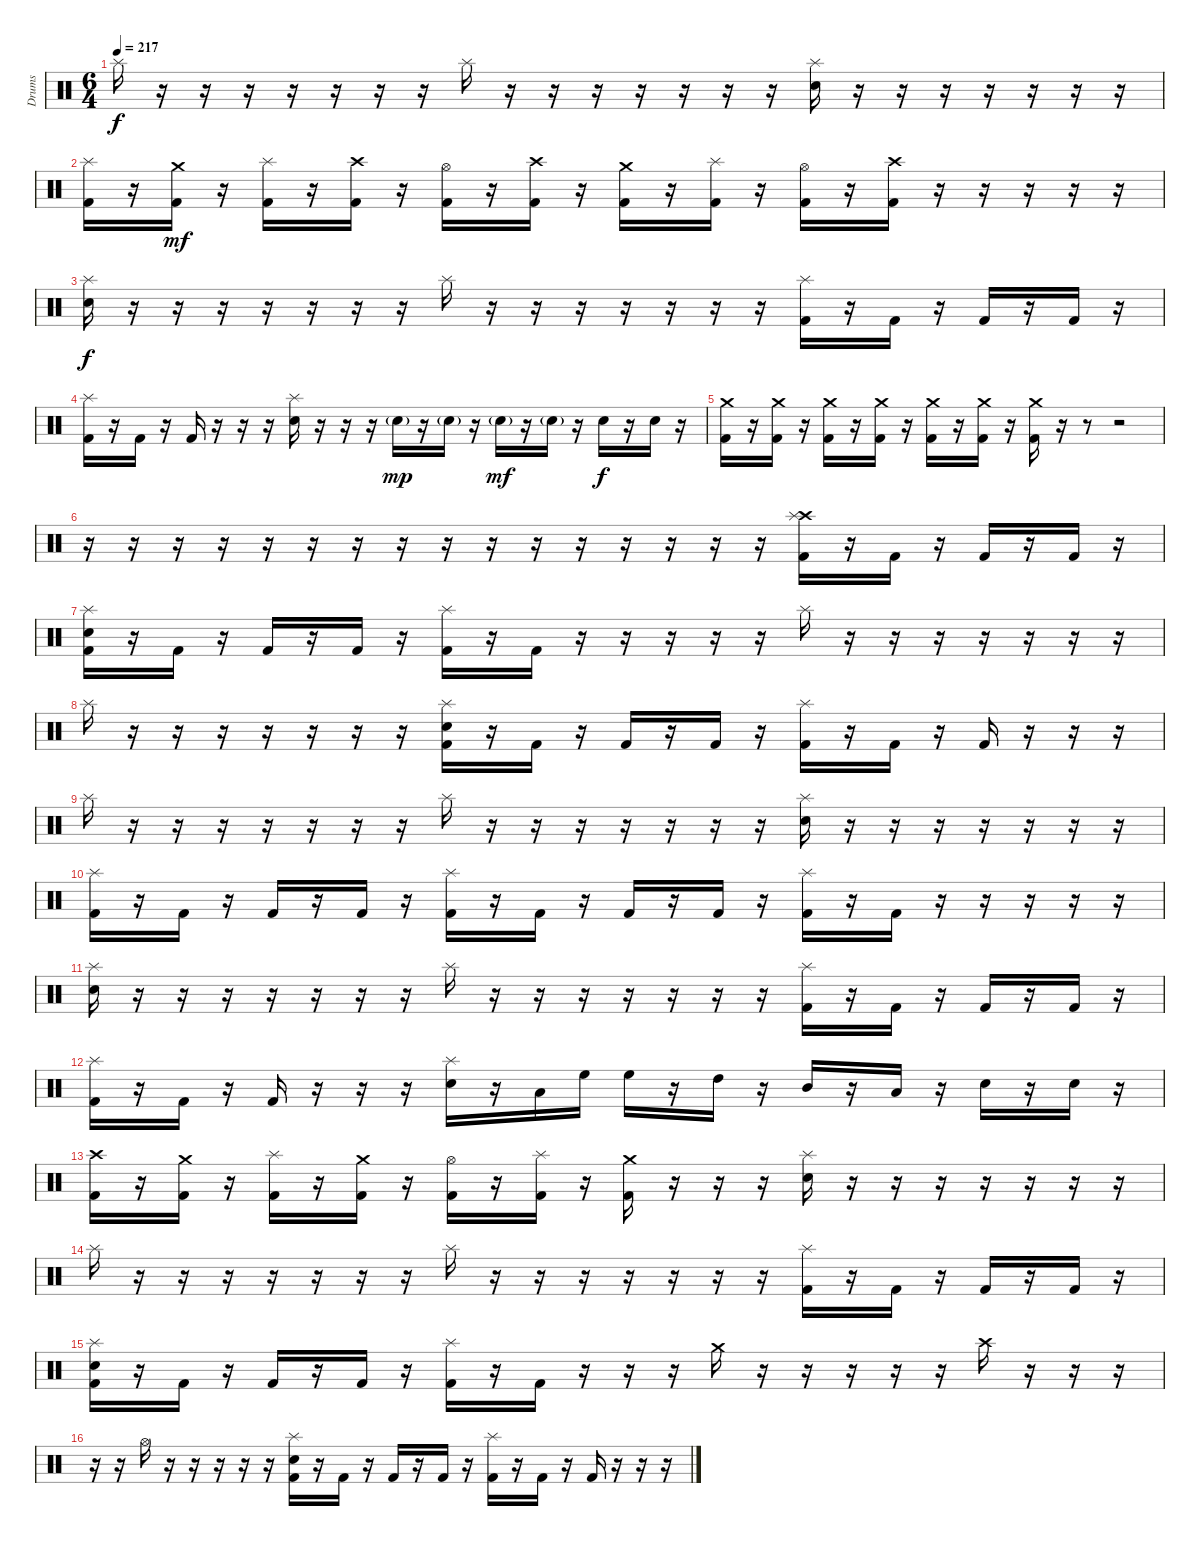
\track ("Drums" "Drums") {instrument percussion}
\staff {score}
\articulation defaults
\ts (6 4)
\tempo 217
\clef neutral
\ks c "Splash (hit)".16{dy f}
r.16 r.16 r.16 r.16 r.16 r.16 r.16 "Splash (hit)".16 r.16 r.16 r.16 r.16 r.16 r.16 r.16 ("Splash (hit)" "Electric Snare (hit)").16 r.16 r.16 r.16 r.16 r.16 r.16 r.16 |
("Splash (hit)" "Kick (hit) 2").16 r.16 ("Crash medium (hit)" "Kick (hit) 2").16{dy mf} r.16 ("Splash (hit)" "Kick (hit) 2").16 r.16 ("Crash high (hit)" "Kick (hit) 2").16 r.16 ("Hi-Hat (open)" "Kick (hit) 2").16 r.16 ("Crash high (hit)" "Kick (hit) 2").16 r.16 ("Crash medium (hit)" "Kick (hit) 2").16 r.16 ("Splash (hit)" "Kick (hit) 2").16 r.16 ("Hi-Hat (open)" "Kick (hit) 2").16 r.16 ("Crash high (hit)" "Kick (hit) 2").16 r.16 r.16 r.16 r.16 r.16 |
("Splash (hit)" "Electric Snare (hit)").16{dy f} r.16 r.16 r.16 r.16 r.16 r.16 r.16 "Splash (hit)".16 r.16 r.16 r.16 r.16 r.16 r.16 r.16 ("Splash (hit)" "Kick (hit) 2").16 r.16 "Kick (hit) 2".16 r.16 "Kick (hit) 2".16 r.16 "Kick (hit) 2".16 r.16 |
("Splash (hit)" "Kick (hit) 2").16 r.16 "Kick (hit) 2".16 r.16 "Kick (hit) 2".16 r.16 r.16 r.16 ("Splash (hit)" "Electric Snare (hit)").16 r.16 r.16 r.16 "Electric Snare (hit)"{g}.16{dy mp} r.16 "Electric Snare (hit)"{g}.16 r.16 "Electric Snare (hit)"{g}.16{dy mf} r.16 "Electric Snare (hit)"{g}.16 r.16 "Electric Snare (hit)".16{dy f} r.16 "Electric Snare (hit)".16 r.16 |
("Crash medium (hit)" "Kick (hit) 2").16 r.16 ("Crash medium (hit)" "Kick (hit) 2").16 r.16 ("Crash medium (hit)" "Kick (hit) 2").16 r.16 ("Crash medium (hit)" "Kick (hit) 2").16 r.16 ("Crash medium (hit)" "Kick (hit) 2").16 r.16 ("Crash medium (hit)" "Kick (hit) 2").16 r.16 ("Crash medium (hit)" "Kick (hit) 2").16 r.16 r.8 r.2 |
r.16 r.16 r.16 r.16 r.16 r.16 r.16 r.16 r.16 r.16 r.16 r.16 r.16 r.16 r.16 r.16 ("Crash high (hit)" "Splash (hit)" "Kick (hit) 2").16 r.16 "Kick (hit) 2".16 r.16 "Kick (hit) 2".16 r.16 "Kick (hit) 2".16 r.16 |
("Splash (hit)" "Electric Snare (hit)" "Kick (hit) 2").16 r.16 "Kick (hit) 2".16 r.16 "Kick (hit) 2".16 r.16 "Kick (hit) 2".16 r.16 ("Splash (hit)" "Kick (hit) 2").16 r.16 "Kick (hit) 2".16 r.16 r.16 r.16 r.16 r.16 "Splash (hit)".16 r.16 r.16 r.16 r.16 r.16 r.16 r.16 |
"Splash (hit)".16 r.16 r.16 r.16 r.16 r.16 r.16 r.16 ("Splash (hit)" "Electric Snare (hit)" "Kick (hit) 2").16 r.16 "Kick (hit) 2".16 r.16 "Kick (hit) 2".16 r.16 "Kick (hit) 2".16 r.16 ("Splash (hit)" "Kick (hit) 2").16 r.16 "Kick (hit) 2".16 r.16 "Kick (hit) 2".16 r.16 r.16 r.16 |
"Splash (hit)".16 r.16 r.16 r.16 r.16 r.16 r.16 r.16 "Splash (hit)".16 r.16 r.16 r.16 r.16 r.16 r.16 r.16 ("Splash (hit)" "Electric Snare (hit)").16 r.16 r.16 r.16 r.16 r.16 r.16 r.16 |
("Splash (hit)" "Kick (hit) 2").16 r.16 "Kick (hit) 2".16 r.16 "Kick (hit) 2".16 r.16 "Kick (hit) 2".16 r.16 ("Splash (hit)" "Kick (hit) 2").16 r.16 "Kick (hit) 2".16 r.16 "Kick (hit) 2".16 r.16 "Kick (hit) 2".16 r.16 ("Splash (hit)" "Kick (hit) 2").16 r.16 "Kick (hit) 2".16 r.16 r.16 r.16 r.16 r.16 |
("Splash (hit)" "Electric Snare (hit)").16 r.16 r.16 r.16 r.16 r.16 r.16 r.16 "Splash (hit)".16 r.16 r.16 r.16 r.16 r.16 r.16 r.16 ("Splash (hit)" "Kick (hit) 2").16 r.16 "Kick (hit) 2".16 r.16 "Kick (hit) 2".16 r.16 "Kick (hit) 2".16 r.16 |
("Splash (hit)" "Kick (hit) 2").16 r.16 "Kick (hit) 2".16 r.16 "Kick (hit) 2".16 r.16 r.16 r.16 ("Splash (hit)" "Electric Snare (hit)").16 r.16 "Low Tom (hit)".16 "High Floor Tom (hit)".16 "High Floor Tom (hit)".16 r.16 "High Tom (hit)".16 r.16 "Mid Tom (hit)".16 r.16 "Low Tom (hit)".16 r.16 "Electric Snare (hit)".16 r.16 "Electric Snare (hit)".16 r.16 |
("Crash high (hit)" "Kick (hit) 2").16 r.16 ("Crash medium (hit)" "Kick (hit) 2").16 r.16 ("Splash (hit)" "Kick (hit) 2").16 r.16 ("Crash medium (hit)" "Kick (hit) 2").16 r.16 ("Hi-Hat (open)" "Kick (hit) 2").16 r.16 ("Splash (hit)" "Kick (hit) 2").16 r.16 ("Crash medium (hit)" "Kick (hit) 2").16 r.16 r.16 r.16 ("Splash (hit)" "Electric Snare (hit)").16 r.16 r.16 r.16 r.16 r.16 r.16 r.16 |
"Splash (hit)".16 r.16 r.16 r.16 r.16 r.16 r.16 r.16 "Splash (hit)".16 r.16 r.16 r.16 r.16 r.16 r.16 r.16 ("Splash (hit)" "Kick (hit) 2").16 r.16 "Kick (hit) 2".16 r.16 "Kick (hit) 2".16 r.16 "Kick (hit) 2".16 r.16 |
("Splash (hit)" "Electric Snare (hit)" "Kick (hit) 2").16 r.16 "Kick (hit) 2".16 r.16 "Kick (hit) 2".16 r.16 "Kick (hit) 2".16 r.16 ("Splash (hit)" "Kick (hit) 2").16 r.16 "Kick (hit) 2".16 r.16 r.16 r.16 "Crash medium (hit)".16 r.16 r.16 r.16 r.16 r.16 "Crash high (hit)".16 r.16 r.16 r.16 |
r.16 r.16 "Hi-Hat (open)".16 r.16 r.16 r.16 r.16 r.16 ("Splash (hit)" "Electric Snare (hit)" "Kick (hit) 2").16 r.16 "Kick (hit) 2".16 r.16 "Kick (hit) 2".16 r.16 "Kick (hit) 2".16 r.16 ("Splash (hit)" "Kick (hit) 2").16 r.16 "Kick (hit) 2".16 r.16 "Kick (hit) 2".16 r.16 r.16 r.16
